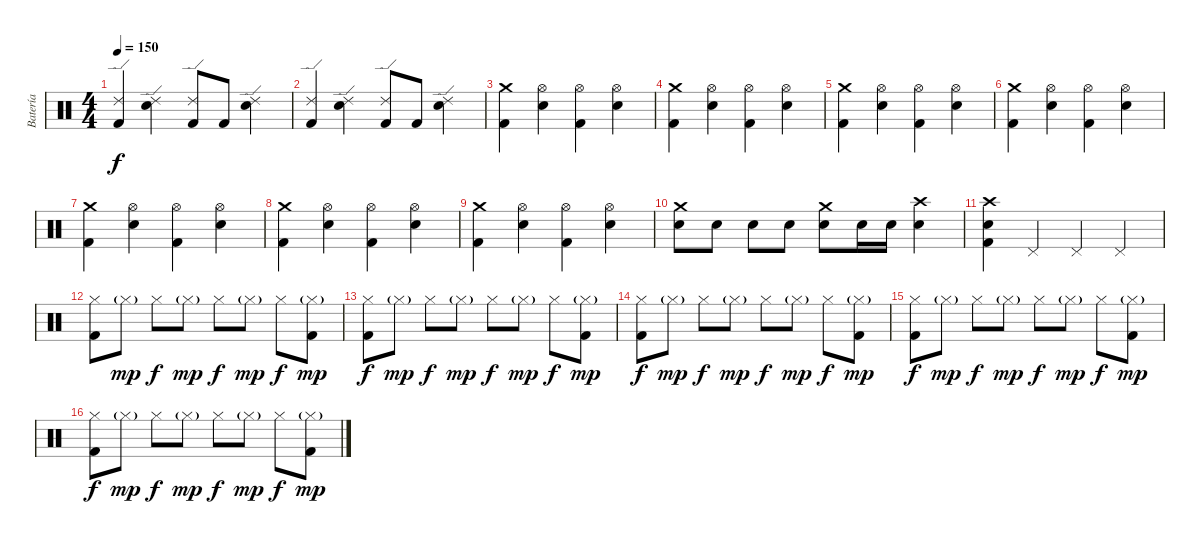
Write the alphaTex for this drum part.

\track ("Batería" "Batería") {instrument percussion}
\staff {score}
\articulation defaults
\ts (4 4)
\tempo 150
\clef neutral
\ks c
("Ride (edge) 2" "Kick (hit) 2").4{dy f} ("Ride (edge) 2" "Electric Snare (hit)").4 ("Ride (edge) 2" "Kick (hit) 2").8 "Kick (hit) 2".8 ("Ride (edge) 2" "Electric Snare (hit)").4 |
("Ride (edge) 2" "Kick (hit) 2").4 ("Ride (edge) 2" "Electric Snare (hit)").4 ("Ride (edge) 2" "Kick (hit) 2").8 "Kick (hit) 2".8 ("Ride (edge) 2" "Electric Snare (hit)").4 |
("Crash medium (hit)" "Kick (hit) 2").4 ("Hi-Hat (open)" "Electric Snare (hit)").4 ("Hi-Hat (open)" "Kick (hit) 2").4 ("Hi-Hat (open)" "Electric Snare (hit)").4 |
("Crash medium (hit)" "Kick (hit) 2").4 ("Hi-Hat (open)" "Electric Snare (hit)").4 ("Hi-Hat (open)" "Kick (hit) 2").4 ("Hi-Hat (open)" "Electric Snare (hit)").4 |
("Crash medium (hit)" "Kick (hit) 2").4 ("Hi-Hat (open)" "Electric Snare (hit)").4 ("Hi-Hat (open)" "Kick (hit) 2").4 ("Hi-Hat (open)" "Electric Snare (hit)").4 |
("Crash medium (hit)" "Kick (hit) 2").4 ("Hi-Hat (open)" "Electric Snare (hit)").4 ("Hi-Hat (open)" "Kick (hit) 2").4 ("Hi-Hat (open)" "Electric Snare (hit)").4 |
("Crash medium (hit)" "Kick (hit) 2").4 ("Hi-Hat (open)" "Electric Snare (hit)").4 ("Hi-Hat (open)" "Kick (hit) 2").4 ("Hi-Hat (open)" "Electric Snare (hit)").4 |
("Crash medium (hit)" "Kick (hit) 2").4 ("Hi-Hat (open)" "Electric Snare (hit)").4 ("Hi-Hat (open)" "Kick (hit) 2").4 ("Hi-Hat (open)" "Electric Snare (hit)").4 |
("Crash medium (hit)" "Kick (hit) 2").4 ("Hi-Hat (open)" "Electric Snare (hit)").4 ("Hi-Hat (open)" "Kick (hit) 2").4 ("Hi-Hat (open)" "Electric Snare (hit)").4 |
("Crash medium (hit)" "Electric Snare (hit)").8 "Electric Snare (hit)".8 "Electric Snare (hit)".8 "Electric Snare (hit)".8 ("Crash medium (hit)" "Electric Snare (hit)").8 "Electric Snare (hit)".16 "Electric Snare (hit)".16 ("Crash high (hit)" "Electric Snare (hit)").4 |
("Crash high (hit)" "Electric Snare (hit)" "Kick (hit) 2").4 "Pedal Hi-Hat (hit)".4 "Pedal Hi-Hat (hit)".4 "Pedal Hi-Hat (hit)".4 |
("Hi-Hat (closed)" "Kick (hit) 2").8 "Hi-Hat (closed)"{g}.8{dy mp} "Hi-Hat (closed)".8{dy f} "Hi-Hat (closed)"{g}.8{dy mp} "Hi-Hat (closed)".8{dy f} "Hi-Hat (closed)"{g}.8{dy mp} "Hi-Hat (closed)".8{dy f} ("Hi-Hat (closed)"{g} "Kick (hit) 2").8{dy mp} |
("Hi-Hat (closed)" "Kick (hit) 2").8{dy f} "Hi-Hat (closed)"{g}.8{dy mp} "Hi-Hat (closed)".8{dy f} "Hi-Hat (closed)"{g}.8{dy mp} "Hi-Hat (closed)".8{dy f} "Hi-Hat (closed)"{g}.8{dy mp} "Hi-Hat (closed)".8{dy f} ("Hi-Hat (closed)"{g} "Kick (hit) 2").8{dy mp} |
("Hi-Hat (closed)" "Kick (hit) 2").8{dy f} "Hi-Hat (closed)"{g}.8{dy mp} "Hi-Hat (closed)".8{dy f} "Hi-Hat (closed)"{g}.8{dy mp} "Hi-Hat (closed)".8{dy f} "Hi-Hat (closed)"{g}.8{dy mp} "Hi-Hat (closed)".8{dy f} ("Hi-Hat (closed)"{g} "Kick (hit) 2").8{dy mp} |
("Hi-Hat (closed)" "Kick (hit) 2").8{dy f} "Hi-Hat (closed)"{g}.8{dy mp} "Hi-Hat (closed)".8{dy f} "Hi-Hat (closed)"{g}.8{dy mp} "Hi-Hat (closed)".8{dy f} "Hi-Hat (closed)"{g}.8{dy mp} "Hi-Hat (closed)".8{dy f} ("Hi-Hat (closed)"{g} "Kick (hit) 2").8{dy mp} |
("Hi-Hat (closed)" "Kick (hit) 2").8{dy f} "Hi-Hat (closed)"{g}.8{dy mp} "Hi-Hat (closed)".8{dy f} "Hi-Hat (closed)"{g}.8{dy mp} "Hi-Hat (closed)".8{dy f} "Hi-Hat (closed)"{g}.8{dy mp} "Hi-Hat (closed)".8{dy f} ("Hi-Hat (closed)"{g} "Kick (hit) 2").8{dy mp}
